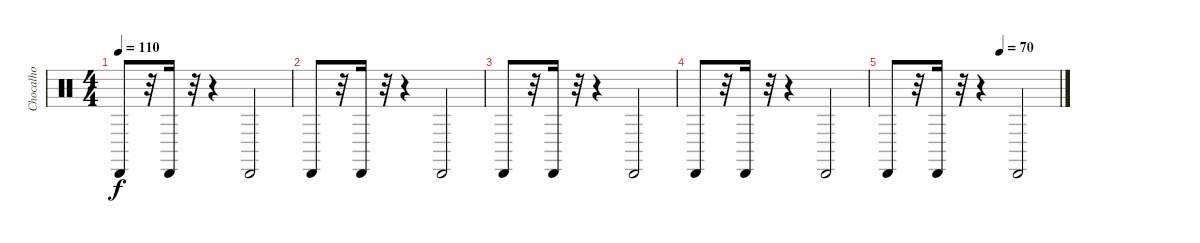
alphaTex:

\track ("Chocalho" "Chocalho") {instrument percussion}
\staff {score}
\articulation defaults
\ts (4 4)
\tempo 110
\clef neutral
\ks c "Cabasa (hit)".8{dy f}
r.32 "Cabasa (hit)".16 r.32 r.4 "Cabasa (hit)".2 |
"Cabasa (hit)".8 r.32 "Cabasa (hit)".16 r.32 r.4 "Cabasa (hit)".2 |
"Cabasa (hit)".8 r.32 "Cabasa (hit)".16 r.32 r.4 "Cabasa (hit)".2 |
"Cabasa (hit)".8 r.32 "Cabasa (hit)".16 r.32 r.4 "Cabasa (hit)".2 |
\tempo (70 0.65625)
"Cabasa (hit)".8 r.32 "Cabasa (hit)".16 r.32 r.4 "Cabasa (hit)".2
